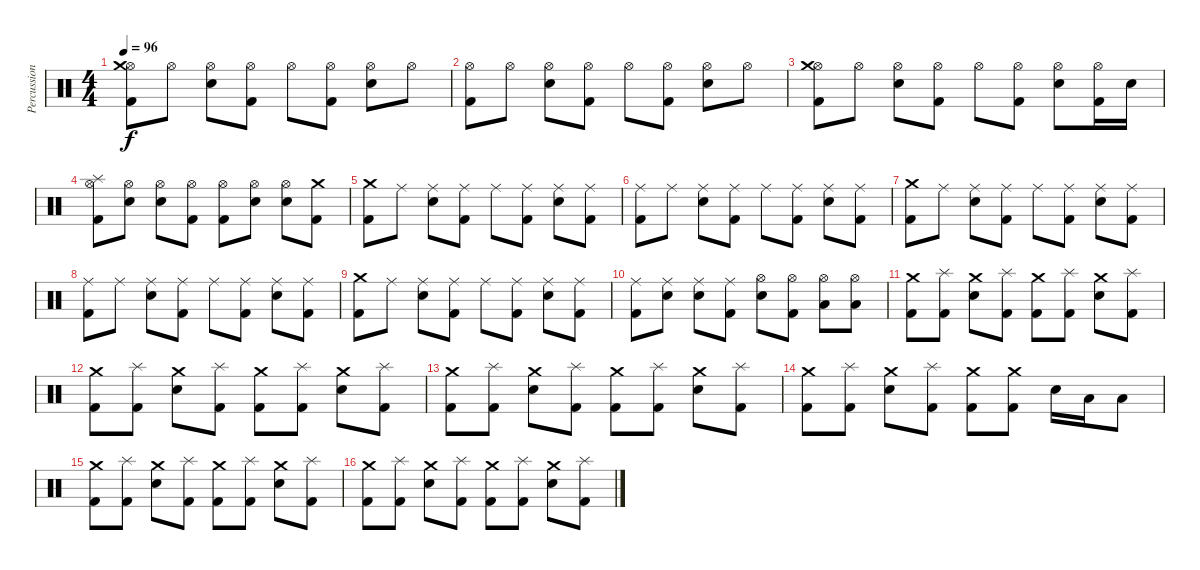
\track ("Percussions" "Percussion") {instrument percussion}
\staff {score}
\articulation defaults
\ts (4 4)
\tempo 96
\clef neutral
\ks c
("Kick (hit) 2" "Hi-Hat (open)" "Crash medium (hit)").8{dy f} "Hi-Hat (open)".8 ("Snare (hit) 2" "Hi-Hat (open)").8 ("Kick (hit) 2" "Hi-Hat (open)").8 "Hi-Hat (open)".8 ("Kick (hit) 2" "Hi-Hat (open)").8 ("Snare (hit) 2" "Hi-Hat (open)").8 "Hi-Hat (open)".8 |
("Kick (hit) 2" "Hi-Hat (open)").8 "Hi-Hat (open)".8 ("Snare (hit) 2" "Hi-Hat (open)").8 ("Kick (hit) 2" "Hi-Hat (open)").8 "Hi-Hat (open)".8 ("Kick (hit) 2" "Hi-Hat (open)").8 ("Snare (hit) 2" "Hi-Hat (open)").8 "Hi-Hat (open)".8 |
("Kick (hit) 2" "Hi-Hat (open)" "Crash medium (hit)").8 "Hi-Hat (open)".8 ("Snare (hit) 2" "Hi-Hat (open)").8 ("Kick (hit) 2" "Hi-Hat (open)").8 "Hi-Hat (open)".8 ("Kick (hit) 2" "Hi-Hat (open)").8 ("Snare (hit) 2" "Hi-Hat (open)").8 ("Kick (hit) 2" "Hi-Hat (open)").16 "Snare (hit) 2".16 |
("Kick (hit) 2" "Hi-Hat (open)" "Splash (hit)").8 ("Snare (hit) 2" "Hi-Hat (open)").8 ("Snare (hit) 2" "Hi-Hat (open)").8 ("Kick (hit) 2" "Hi-Hat (open)").8 ("Kick (hit) 2" "Hi-Hat (open)").8 ("Snare (hit) 2" "Hi-Hat (open)").8 ("Snare (hit) 2" "Hi-Hat (open)").8 ("Kick (hit) 2" "Crash medium (hit)").8 |
("Kick (hit) 2" "Crash medium (hit)").8 "Ride (middle)".8 ("Snare (hit) 2" "Ride (middle)").8 ("Kick (hit) 2" "Ride (middle)").8 "Ride (middle)".8 ("Kick (hit) 2" "Ride (middle)").8 ("Snare (hit) 2" "Ride (middle)").8 ("Kick (hit) 2" "Ride (middle)").8 |
("Kick (hit) 2" "Ride (middle)").8 "Ride (middle)".8 ("Snare (hit) 2" "Ride (middle)").8 ("Kick (hit) 2" "Ride (middle)").8 "Ride (middle)".8 ("Kick (hit) 2" "Ride (middle)").8 ("Snare (hit) 2" "Ride (middle)").8 ("Kick (hit) 2" "Ride (middle)").8 |
("Kick (hit) 2" "Crash medium (hit)").8 "Ride (middle)".8 ("Snare (hit) 2" "Ride (middle)").8 ("Kick (hit) 2" "Ride (middle)").8 "Ride (middle)".8 ("Kick (hit) 2" "Ride (middle)").8 ("Snare (hit) 2" "Ride (middle)").8 ("Kick (hit) 2" "Ride (middle)").8 |
("Kick (hit) 2" "Ride (middle)").8 "Ride (middle)".8 ("Snare (hit) 2" "Ride (middle)").8 ("Kick (hit) 2" "Ride (middle)").8 "Ride (middle)".8 ("Kick (hit) 2" "Ride (middle)").8 ("Snare (hit) 2" "Ride (middle)").8 ("Kick (hit) 2" "Ride (middle)").8 |
("Kick (hit) 2" "Crash medium (hit)").8 "Ride (middle)".8 ("Snare (hit) 2" "Ride (middle)").8 ("Kick (hit) 2" "Ride (middle)").8 "Ride (middle)".8 ("Kick (hit) 2" "Ride (middle)").8 ("Snare (hit) 2" "Ride (middle)").8 ("Kick (hit) 2" "Ride (middle)").8 |
("Kick (hit) 2" "Ride (middle)").8 ("Snare (hit) 2" "Ride (middle)").8 ("Snare (hit) 2" "Ride (middle)").8 ("Kick (hit) 2" "Ride (middle)").8 ("Snare (hit) 2" "Hi-Hat (open)").8 ("Kick (hit) 2" "Hi-Hat (open)").8 ("Low Tom (hit)" "Hi-Hat (open)").8 ("Low Floor Tom (hit)" "Hi-Hat (open)").8 |
("Kick (hit) 2" "Crash medium (hit)").8 ("Kick (hit) 2" "Splash (hit)").8 ("Snare (hit) 2" "Crash medium (hit)").8 ("Kick (hit) 2" "Splash (hit)").8 ("Kick (hit) 2" "Crash medium (hit)").8 ("Kick (hit) 2" "Splash (hit)").8 ("Snare (hit) 2" "Crash medium (hit)").8 ("Kick (hit) 2" "Splash (hit)").8 |
("Kick (hit) 2" "Crash medium (hit)").8 ("Kick (hit) 2" "Splash (hit)").8 ("Snare (hit) 2" "Crash medium (hit)").8 ("Kick (hit) 2" "Splash (hit)").8 ("Kick (hit) 2" "Crash medium (hit)").8 ("Kick (hit) 2" "Splash (hit)").8 ("Snare (hit) 2" "Crash medium (hit)").8 ("Kick (hit) 2" "Splash (hit)").8 |
("Kick (hit) 2" "Crash medium (hit)").8 ("Kick (hit) 2" "Splash (hit)").8 ("Snare (hit) 2" "Crash medium (hit)").8 ("Kick (hit) 2" "Splash (hit)").8 ("Kick (hit) 2" "Crash medium (hit)").8 ("Kick (hit) 2" "Splash (hit)").8 ("Snare (hit) 2" "Crash medium (hit)").8 ("Kick (hit) 2" "Splash (hit)").8 |
("Kick (hit) 2" "Crash medium (hit)").8 ("Kick (hit) 2" "Splash (hit)").8 ("Snare (hit) 2" "Crash medium (hit)").8 ("Kick (hit) 2" "Splash (hit)").8 ("Kick (hit) 2" "Crash medium (hit)").8 ("Kick (hit) 2" "Crash medium (hit)").8 "Snare (hit) 2".16 "Low Tom (hit)".16 "Low Floor Tom (hit)".8 |
("Kick (hit) 2" "Crash medium (hit)").8 ("Kick (hit) 2" "Splash (hit)").8 ("Snare (hit) 2" "Crash medium (hit)").8 ("Kick (hit) 2" "Splash (hit)").8 ("Kick (hit) 2" "Crash medium (hit)").8 ("Kick (hit) 2" "Splash (hit)").8 ("Snare (hit) 2" "Crash medium (hit)").8 ("Kick (hit) 2" "Splash (hit)").8 |
("Kick (hit) 2" "Crash medium (hit)").8 ("Kick (hit) 2" "Splash (hit)").8 ("Snare (hit) 2" "Crash medium (hit)").8 ("Kick (hit) 2" "Splash (hit)").8 ("Kick (hit) 2" "Crash medium (hit)").8 ("Kick (hit) 2" "Splash (hit)").8 ("Snare (hit) 2" "Crash medium (hit)").8 ("Kick (hit) 2" "Splash (hit)").8
